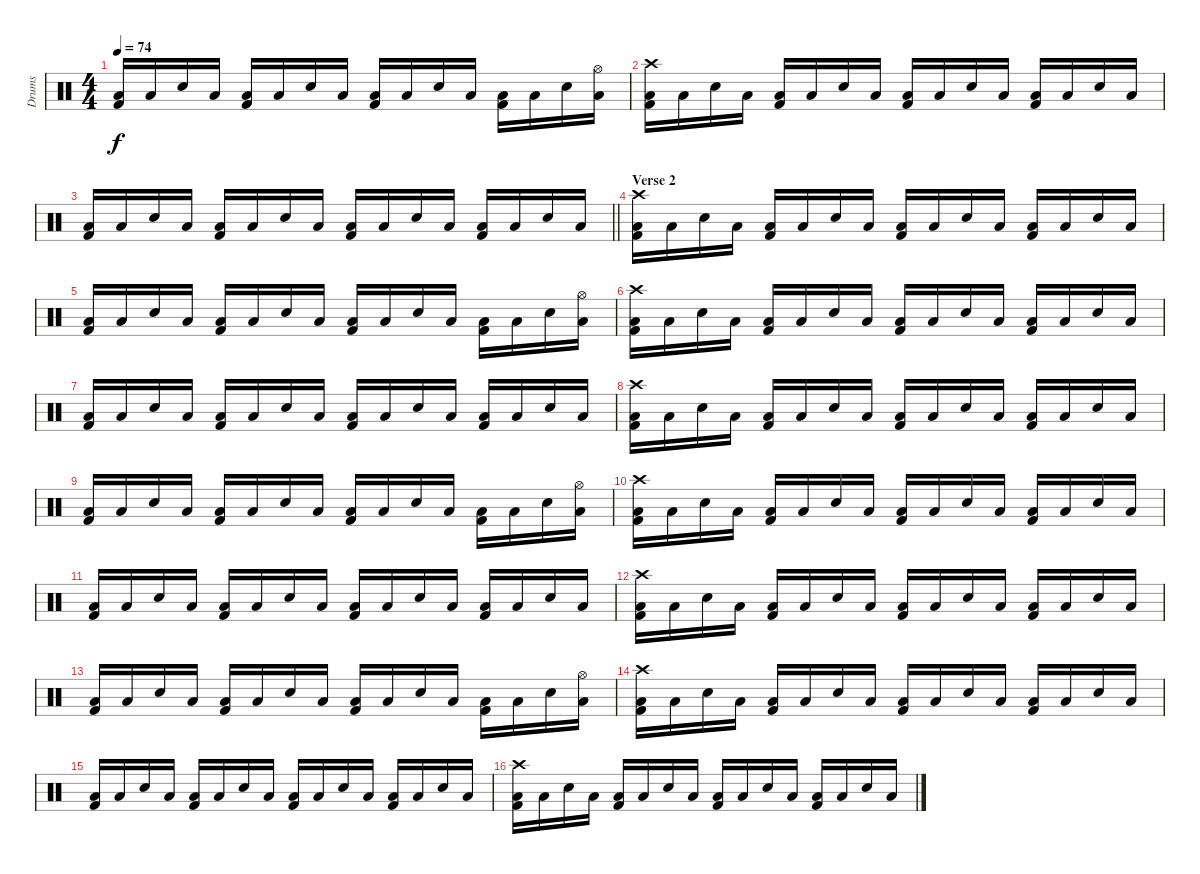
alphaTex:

\track ("Drums" "Drums") {instrument percussion}
\staff {score}
\articulation defaults
\ts (4 4)
\tempo 74
\clef neutral
\ks c
("Low Floor Tom (hit)" "Kick (hit) 2").16{dy f} "Low Floor Tom (hit)".16 "Snare (hit) 2".16 "Low Floor Tom (hit)".16 ("Low Floor Tom (hit)" "Kick (hit) 2").16 "Low Floor Tom (hit)".16 "Snare (hit) 2".16 "Low Floor Tom (hit)".16 ("Low Floor Tom (hit)" "Kick (hit) 2").16 "Low Floor Tom (hit)".16 "Snare (hit) 2".16 "Low Floor Tom (hit)".16 ("Low Floor Tom (hit)" "Kick (hit) 2").16 "Low Floor Tom (hit)".16 "Snare (hit) 2".16 ("Hi-Hat (open)" "Low Floor Tom (hit)").16 |
("Crash high (hit)" "Low Floor Tom (hit)" "Kick (hit) 2").16 "Low Floor Tom (hit)".16 "Snare (hit) 2".16 "Low Floor Tom (hit)".16 ("Low Floor Tom (hit)" "Kick (hit) 2").16 "Low Floor Tom (hit)".16 "Snare (hit) 2".16 "Low Floor Tom (hit)".16 ("Low Floor Tom (hit)" "Kick (hit) 2").16 "Low Floor Tom (hit)".16 "Snare (hit) 2".16 "Low Floor Tom (hit)".16 ("Low Floor Tom (hit)" "Kick (hit) 2").16 "Low Floor Tom (hit)".16 "Snare (hit) 2".16 "Low Floor Tom (hit)".16 |
\barLineRight lightlight
("Low Floor Tom (hit)" "Kick (hit) 2").16 "Low Floor Tom (hit)".16 "Snare (hit) 2".16 "Low Floor Tom (hit)".16 ("Low Floor Tom (hit)" "Kick (hit) 2").16 "Low Floor Tom (hit)".16 "Snare (hit) 2".16 "Low Floor Tom (hit)".16 ("Low Floor Tom (hit)" "Kick (hit) 2").16 "Low Floor Tom (hit)".16 "Snare (hit) 2".16 "Low Floor Tom (hit)".16 ("Low Floor Tom (hit)" "Kick (hit) 2").16 "Low Floor Tom (hit)".16 "Snare (hit) 2".16 "Low Floor Tom (hit)".16 |
\section ("" "Verse 2")
("Crash high (hit)" "Low Floor Tom (hit)" "Kick (hit) 2").16 "Low Floor Tom (hit)".16 "Snare (hit) 2".16 "Low Floor Tom (hit)".16 ("Low Floor Tom (hit)" "Kick (hit) 2").16 "Low Floor Tom (hit)".16 "Snare (hit) 2".16 "Low Floor Tom (hit)".16 ("Low Floor Tom (hit)" "Kick (hit) 2").16 "Low Floor Tom (hit)".16 "Snare (hit) 2".16 "Low Floor Tom (hit)".16 ("Low Floor Tom (hit)" "Kick (hit) 2").16 "Low Floor Tom (hit)".16 "Snare (hit) 2".16 "Low Floor Tom (hit)".16 |
("Low Floor Tom (hit)" "Kick (hit) 2").16 "Low Floor Tom (hit)".16 "Snare (hit) 2".16 "Low Floor Tom (hit)".16 ("Low Floor Tom (hit)" "Kick (hit) 2").16 "Low Floor Tom (hit)".16 "Snare (hit) 2".16 "Low Floor Tom (hit)".16 ("Low Floor Tom (hit)" "Kick (hit) 2").16 "Low Floor Tom (hit)".16 "Snare (hit) 2".16 "Low Floor Tom (hit)".16 ("Low Floor Tom (hit)" "Kick (hit) 2").16 "Low Floor Tom (hit)".16 "Snare (hit) 2".16 ("Hi-Hat (open)" "Low Floor Tom (hit)").16 |
("Crash high (hit)" "Low Floor Tom (hit)" "Kick (hit) 2").16 "Low Floor Tom (hit)".16 "Snare (hit) 2".16 "Low Floor Tom (hit)".16 ("Low Floor Tom (hit)" "Kick (hit) 2").16 "Low Floor Tom (hit)".16 "Snare (hit) 2".16 "Low Floor Tom (hit)".16 ("Low Floor Tom (hit)" "Kick (hit) 2").16 "Low Floor Tom (hit)".16 "Snare (hit) 2".16 "Low Floor Tom (hit)".16 ("Low Floor Tom (hit)" "Kick (hit) 2").16 "Low Floor Tom (hit)".16 "Snare (hit) 2".16 "Low Floor Tom (hit)".16 |
("Low Floor Tom (hit)" "Kick (hit) 2").16 "Low Floor Tom (hit)".16 "Snare (hit) 2".16 "Low Floor Tom (hit)".16 ("Low Floor Tom (hit)" "Kick (hit) 2").16 "Low Floor Tom (hit)".16 "Snare (hit) 2".16 "Low Floor Tom (hit)".16 ("Low Floor Tom (hit)" "Kick (hit) 2").16 "Low Floor Tom (hit)".16 "Snare (hit) 2".16 "Low Floor Tom (hit)".16 ("Low Floor Tom (hit)" "Kick (hit) 2").16 "Low Floor Tom (hit)".16 "Snare (hit) 2".16 "Low Floor Tom (hit)".16 |
("Crash high (hit)" "Low Floor Tom (hit)" "Kick (hit) 2").16 "Low Floor Tom (hit)".16 "Snare (hit) 2".16 "Low Floor Tom (hit)".16 ("Low Floor Tom (hit)" "Kick (hit) 2").16 "Low Floor Tom (hit)".16 "Snare (hit) 2".16 "Low Floor Tom (hit)".16 ("Low Floor Tom (hit)" "Kick (hit) 2").16 "Low Floor Tom (hit)".16 "Snare (hit) 2".16 "Low Floor Tom (hit)".16 ("Low Floor Tom (hit)" "Kick (hit) 2").16 "Low Floor Tom (hit)".16 "Snare (hit) 2".16 "Low Floor Tom (hit)".16 |
("Low Floor Tom (hit)" "Kick (hit) 2").16 "Low Floor Tom (hit)".16 "Snare (hit) 2".16 "Low Floor Tom (hit)".16 ("Low Floor Tom (hit)" "Kick (hit) 2").16 "Low Floor Tom (hit)".16 "Snare (hit) 2".16 "Low Floor Tom (hit)".16 ("Low Floor Tom (hit)" "Kick (hit) 2").16 "Low Floor Tom (hit)".16 "Snare (hit) 2".16 "Low Floor Tom (hit)".16 ("Low Floor Tom (hit)" "Kick (hit) 2").16 "Low Floor Tom (hit)".16 "Snare (hit) 2".16 ("Hi-Hat (open)" "Low Floor Tom (hit)").16 |
("Crash high (hit)" "Low Floor Tom (hit)" "Kick (hit) 2").16 "Low Floor Tom (hit)".16 "Snare (hit) 2".16 "Low Floor Tom (hit)".16 ("Low Floor Tom (hit)" "Kick (hit) 2").16 "Low Floor Tom (hit)".16 "Snare (hit) 2".16 "Low Floor Tom (hit)".16 ("Low Floor Tom (hit)" "Kick (hit) 2").16 "Low Floor Tom (hit)".16 "Snare (hit) 2".16 "Low Floor Tom (hit)".16 ("Low Floor Tom (hit)" "Kick (hit) 2").16 "Low Floor Tom (hit)".16 "Snare (hit) 2".16 "Low Floor Tom (hit)".16 |
("Low Floor Tom (hit)" "Kick (hit) 2").16 "Low Floor Tom (hit)".16 "Snare (hit) 2".16 "Low Floor Tom (hit)".16 ("Low Floor Tom (hit)" "Kick (hit) 2").16 "Low Floor Tom (hit)".16 "Snare (hit) 2".16 "Low Floor Tom (hit)".16 ("Low Floor Tom (hit)" "Kick (hit) 2").16 "Low Floor Tom (hit)".16 "Snare (hit) 2".16 "Low Floor Tom (hit)".16 ("Low Floor Tom (hit)" "Kick (hit) 2").16 "Low Floor Tom (hit)".16 "Snare (hit) 2".16 "Low Floor Tom (hit)".16 |
("Crash high (hit)" "Low Floor Tom (hit)" "Kick (hit) 2").16 "Low Floor Tom (hit)".16 "Snare (hit) 2".16 "Low Floor Tom (hit)".16 ("Low Floor Tom (hit)" "Kick (hit) 2").16 "Low Floor Tom (hit)".16 "Snare (hit) 2".16 "Low Floor Tom (hit)".16 ("Low Floor Tom (hit)" "Kick (hit) 2").16 "Low Floor Tom (hit)".16 "Snare (hit) 2".16 "Low Floor Tom (hit)".16 ("Low Floor Tom (hit)" "Kick (hit) 2").16 "Low Floor Tom (hit)".16 "Snare (hit) 2".16 "Low Floor Tom (hit)".16 |
("Low Floor Tom (hit)" "Kick (hit) 2").16 "Low Floor Tom (hit)".16 "Snare (hit) 2".16 "Low Floor Tom (hit)".16 ("Low Floor Tom (hit)" "Kick (hit) 2").16 "Low Floor Tom (hit)".16 "Snare (hit) 2".16 "Low Floor Tom (hit)".16 ("Low Floor Tom (hit)" "Kick (hit) 2").16 "Low Floor Tom (hit)".16 "Snare (hit) 2".16 "Low Floor Tom (hit)".16 ("Low Floor Tom (hit)" "Kick (hit) 2").16 "Low Floor Tom (hit)".16 "Snare (hit) 2".16 ("Hi-Hat (open)" "Low Floor Tom (hit)").16 |
("Crash high (hit)" "Low Floor Tom (hit)" "Kick (hit) 2").16 "Low Floor Tom (hit)".16 "Snare (hit) 2".16 "Low Floor Tom (hit)".16 ("Low Floor Tom (hit)" "Kick (hit) 2").16 "Low Floor Tom (hit)".16 "Snare (hit) 2".16 "Low Floor Tom (hit)".16 ("Low Floor Tom (hit)" "Kick (hit) 2").16 "Low Floor Tom (hit)".16 "Snare (hit) 2".16 "Low Floor Tom (hit)".16 ("Low Floor Tom (hit)" "Kick (hit) 2").16 "Low Floor Tom (hit)".16 "Snare (hit) 2".16 "Low Floor Tom (hit)".16 |
("Low Floor Tom (hit)" "Kick (hit) 2").16 "Low Floor Tom (hit)".16 "Snare (hit) 2".16 "Low Floor Tom (hit)".16 ("Low Floor Tom (hit)" "Kick (hit) 2").16 "Low Floor Tom (hit)".16 "Snare (hit) 2".16 "Low Floor Tom (hit)".16 ("Low Floor Tom (hit)" "Kick (hit) 2").16 "Low Floor Tom (hit)".16 "Snare (hit) 2".16 "Low Floor Tom (hit)".16 ("Low Floor Tom (hit)" "Kick (hit) 2").16 "Low Floor Tom (hit)".16 "Snare (hit) 2".16 "Low Floor Tom (hit)".16 |
("Crash high (hit)" "Low Floor Tom (hit)" "Kick (hit) 2").16 "Low Floor Tom (hit)".16 "Snare (hit) 2".16 "Low Floor Tom (hit)".16 ("Low Floor Tom (hit)" "Kick (hit) 2").16 "Low Floor Tom (hit)".16 "Snare (hit) 2".16 "Low Floor Tom (hit)".16 ("Low Floor Tom (hit)" "Kick (hit) 2").16 "Low Floor Tom (hit)".16 "Snare (hit) 2".16 "Low Floor Tom (hit)".16 ("Low Floor Tom (hit)" "Kick (hit) 2").16 "Low Floor Tom (hit)".16 "Snare (hit) 2".16 "Low Floor Tom (hit)".16
